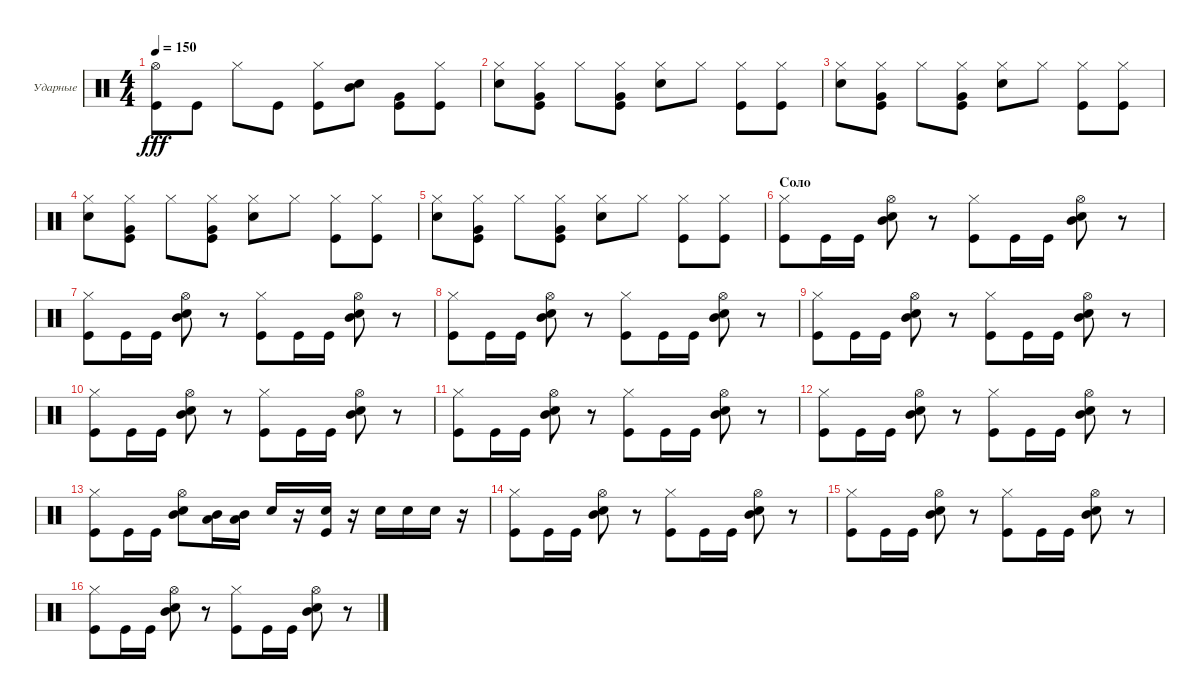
\bracketExtendMode groupsimilarinstruments
\firstSystemTrackNameOrientation horizontal
\otherSystemsTrackNameOrientation horizontal
\track ("Максим Удалов" "Ударные") {instrument percussion}
\staff {score}
\articulation defaults
\ts (4 4)
\tempo 150
\clef neutral
\ks c
("Hi-Hat (open)" "Kick (hit)").8{dy fff} "Kick (hit)".8 "Hi-Hat (closed)".8 "Kick (hit)".8 ("Kick (hit)" "Hi-Hat (closed)").8 ("Snare (hit) 2" "Mid Tom (hit)").8 ("Very Low Tom (hit)" "Kick (hit)").8 ("Kick (hit)" "Hi-Hat (closed)").8 |
("Snare (hit) 2" "Hi-Hat (closed)").8 ("Hi-Hat (closed)" "Very Low Tom (hit)" "Kick (hit)").8 "Hi-Hat (closed)".8 ("Hi-Hat (closed)" "Very Low Tom (hit)" "Kick (hit)").8 ("Hi-Hat (closed)" "Snare (hit) 2").8 "Hi-Hat (closed)".8 ("Hi-Hat (closed)" "Kick (hit)").8 ("Hi-Hat (closed)" "Kick (hit)").8 |
("Snare (hit) 2" "Hi-Hat (closed)").8 ("Hi-Hat (closed)" "Very Low Tom (hit)" "Kick (hit)").8 "Hi-Hat (closed)".8 ("Hi-Hat (closed)" "Very Low Tom (hit)" "Kick (hit)").8 ("Hi-Hat (closed)" "Snare (hit) 2").8 "Hi-Hat (closed)".8 ("Hi-Hat (closed)" "Kick (hit)").8 ("Hi-Hat (closed)" "Kick (hit)").8 |
("Snare (hit) 2" "Hi-Hat (closed)").8 ("Hi-Hat (closed)" "Very Low Tom (hit)" "Kick (hit)").8 "Hi-Hat (closed)".8 ("Hi-Hat (closed)" "Very Low Tom (hit)" "Kick (hit)").8 ("Hi-Hat (closed)" "Snare (hit) 2").8 "Hi-Hat (closed)".8 ("Hi-Hat (closed)" "Kick (hit)").8 ("Hi-Hat (closed)" "Kick (hit)").8 |
("Snare (hit) 2" "Hi-Hat (closed)").8 ("Hi-Hat (closed)" "Very Low Tom (hit)" "Kick (hit)").8 "Hi-Hat (closed)".8 ("Hi-Hat (closed)" "Very Low Tom (hit)" "Kick (hit)").8 ("Hi-Hat (closed)" "Snare (hit) 2").8 "Hi-Hat (closed)".8 ("Hi-Hat (closed)" "Kick (hit)").8 ("Hi-Hat (closed)" "Kick (hit)").8 |
\section ("" "Соло")
("Hi-Hat (closed)" "Kick (hit)").8 "Kick (hit)".16 "Kick (hit)".16 ("Hi-Hat (open)" "Mid Tom (hit)" "Snare (hit) 2").8 r.8 ("Hi-Hat (closed)" "Kick (hit)").8 "Kick (hit)".16 "Kick (hit)".16 ("Hi-Hat (open)" "Mid Tom (hit)" "Snare (hit) 2").8 r.8 |
("Hi-Hat (closed)" "Kick (hit)").8 "Kick (hit)".16 "Kick (hit)".16 ("Hi-Hat (open)" "Mid Tom (hit)" "Snare (hit) 2").8 r.8 ("Hi-Hat (closed)" "Kick (hit)").8 "Kick (hit)".16 "Kick (hit)".16 ("Hi-Hat (open)" "Mid Tom (hit)" "Snare (hit) 2").8 r.8 |
("Hi-Hat (closed)" "Kick (hit)").8 "Kick (hit)".16 "Kick (hit)".16 ("Hi-Hat (open)" "Mid Tom (hit)" "Snare (hit) 2").8 r.8 ("Hi-Hat (closed)" "Kick (hit)").8 "Kick (hit)".16 "Kick (hit)".16 ("Hi-Hat (open)" "Mid Tom (hit)" "Snare (hit) 2").8 r.8 |
("Hi-Hat (closed)" "Kick (hit)").8 "Kick (hit)".16 "Kick (hit)".16 ("Hi-Hat (open)" "Mid Tom (hit)" "Snare (hit) 2").8 r.8 ("Hi-Hat (closed)" "Kick (hit)").8 "Kick (hit)".16 "Kick (hit)".16 ("Hi-Hat (open)" "Mid Tom (hit)" "Snare (hit) 2").8 r.8 |
("Hi-Hat (closed)" "Kick (hit)").8 "Kick (hit)".16 "Kick (hit)".16 ("Hi-Hat (open)" "Mid Tom (hit)" "Snare (hit) 2").8 r.8 ("Hi-Hat (closed)" "Kick (hit)").8 "Kick (hit)".16 "Kick (hit)".16 ("Hi-Hat (open)" "Mid Tom (hit)" "Snare (hit) 2").8 r.8 |
("Hi-Hat (closed)" "Kick (hit)").8 "Kick (hit)".16 "Kick (hit)".16 ("Hi-Hat (open)" "Mid Tom (hit)" "Snare (hit) 2").8 r.8 ("Hi-Hat (closed)" "Kick (hit)").8 "Kick (hit)".16 "Kick (hit)".16 ("Hi-Hat (open)" "Mid Tom (hit)" "Snare (hit) 2").8 r.8 |
("Hi-Hat (closed)" "Kick (hit)").8 "Kick (hit)".16 "Kick (hit)".16 ("Hi-Hat (open)" "Mid Tom (hit)" "Snare (hit) 2").8 r.8 ("Hi-Hat (closed)" "Kick (hit)").8 "Kick (hit)".16 "Kick (hit)".16 ("Hi-Hat (open)" "Mid Tom (hit)" "Snare (hit) 2").8 r.8 |
("Hi-Hat (closed)" "Kick (hit)").8 "Kick (hit)".16 "Kick (hit)".16 ("Hi-Hat (open)" "Mid Tom (hit)" "Snare (hit) 2").8 ("Low Tom (hit)" "Mid Tom (hit)").16 ("Low Tom (hit)" "Mid Tom (hit)").16 "Snare (hit) 2".16 r.16 ("Kick (hit)" "Snare (hit) 2").16 r.16 "Snare (hit) 2".16 "Snare (hit) 2".16 "Snare (hit) 2".16 r.16 |
("Hi-Hat (closed)" "Kick (hit)").8 "Kick (hit)".16 "Kick (hit)".16 ("Hi-Hat (open)" "Mid Tom (hit)" "Snare (hit) 2").8 r.8 ("Hi-Hat (closed)" "Kick (hit)").8 "Kick (hit)".16 "Kick (hit)".16 ("Hi-Hat (open)" "Mid Tom (hit)" "Snare (hit) 2").8 r.8 |
("Hi-Hat (closed)" "Kick (hit)").8 "Kick (hit)".16 "Kick (hit)".16 ("Hi-Hat (open)" "Mid Tom (hit)" "Snare (hit) 2").8 r.8 ("Hi-Hat (closed)" "Kick (hit)").8 "Kick (hit)".16 "Kick (hit)".16 ("Hi-Hat (open)" "Mid Tom (hit)" "Snare (hit) 2").8 r.8 |
("Hi-Hat (closed)" "Kick (hit)").8 "Kick (hit)".16 "Kick (hit)".16 ("Hi-Hat (open)" "Mid Tom (hit)" "Snare (hit) 2").8 r.8 ("Hi-Hat (closed)" "Kick (hit)").8 "Kick (hit)".16 "Kick (hit)".16 ("Hi-Hat (open)" "Mid Tom (hit)" "Snare (hit) 2").8 r.8
